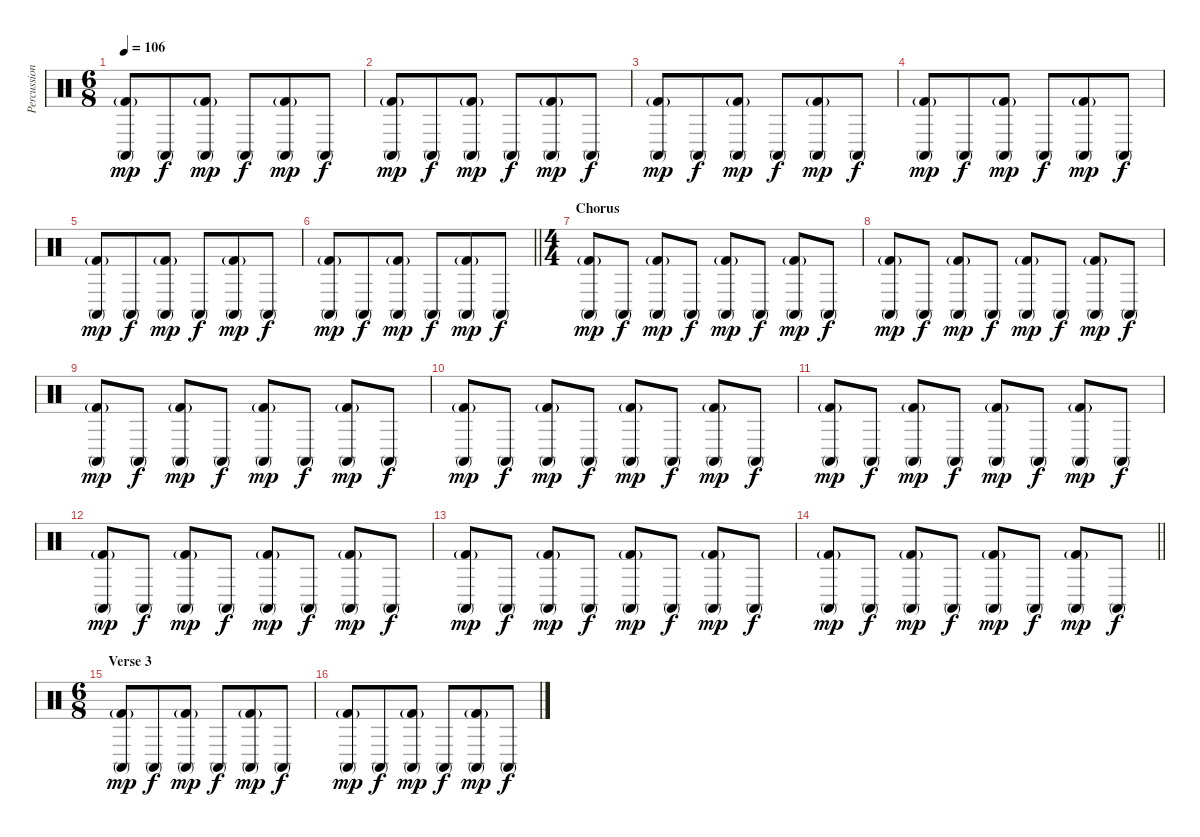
\track ("Percussion" "Percussion") {instrument percussion}
\staff {score}
\articulation defaults
\ts (6 8)
\tempo 106
\clef neutral
\ks c
("Conga high (mute)" "Kick (hit) 2"{g}).8{dy mp} "Conga high (mute)".8{dy f} ("Conga high (mute)" "Kick (hit) 2"{g}).8{dy mp} "Conga high (mute)".8{dy f} ("Conga high (mute)" "Kick (hit) 2"{g}).8{dy mp} "Conga high (mute)".8{dy f} |
("Conga high (mute)" "Kick (hit) 2"{g}).8{dy mp} "Conga high (mute)".8{dy f} ("Conga high (mute)" "Kick (hit) 2"{g}).8{dy mp} "Conga high (mute)".8{dy f} ("Conga high (mute)" "Kick (hit) 2"{g}).8{dy mp} "Conga high (mute)".8{dy f} |
("Conga high (mute)" "Kick (hit) 2"{g}).8{dy mp} "Conga high (mute)".8{dy f} ("Conga high (mute)" "Kick (hit) 2"{g}).8{dy mp} "Conga high (mute)".8{dy f} ("Conga high (mute)" "Kick (hit) 2"{g}).8{dy mp} "Conga high (mute)".8{dy f} |
("Conga high (mute)" "Kick (hit) 2"{g}).8{dy mp} "Conga high (mute)".8{dy f} ("Conga high (mute)" "Kick (hit) 2"{g}).8{dy mp} "Conga high (mute)".8{dy f} ("Conga high (mute)" "Kick (hit) 2"{g}).8{dy mp} "Conga high (mute)".8{dy f} |
("Conga high (mute)" "Kick (hit) 2"{g}).8{dy mp} "Conga high (mute)".8{dy f} ("Conga high (mute)" "Kick (hit) 2"{g}).8{dy mp} "Conga high (mute)".8{dy f} ("Conga high (mute)" "Kick (hit) 2"{g}).8{dy mp} "Conga high (mute)".8{dy f} |
\barLineRight lightlight
("Conga high (mute)" "Kick (hit) 2"{g}).8{dy mp} "Conga high (mute)".8{dy f} ("Conga high (mute)" "Kick (hit) 2"{g}).8{dy mp} "Conga high (mute)".8{dy f} ("Conga high (mute)" "Kick (hit) 2"{g}).8{dy mp} "Conga high (mute)".8{dy f} |
\ts (4 4)
\section ("" "Chorus")
("Conga high (mute)" "Kick (hit) 2"{g}).8{dy mp} "Conga high (mute)".8{dy f} ("Conga high (mute)" "Kick (hit) 2"{g}).8{dy mp} "Conga high (mute)".8{dy f} ("Conga high (mute)" "Kick (hit) 2"{g}).8{dy mp} "Conga high (mute)".8{dy f} ("Conga high (mute)" "Kick (hit) 2"{g}).8{dy mp} "Conga high (mute)".8{dy f} |
("Conga high (mute)" "Kick (hit) 2"{g}).8{dy mp} "Conga high (mute)".8{dy f} ("Conga high (mute)" "Kick (hit) 2"{g}).8{dy mp} "Conga high (mute)".8{dy f} ("Conga high (mute)" "Kick (hit) 2"{g}).8{dy mp} "Conga high (mute)".8{dy f} ("Conga high (mute)" "Kick (hit) 2"{g}).8{dy mp} "Conga high (mute)".8{dy f} |
("Conga high (mute)" "Kick (hit) 2"{g}).8{dy mp} "Conga high (mute)".8{dy f} ("Conga high (mute)" "Kick (hit) 2"{g}).8{dy mp} "Conga high (mute)".8{dy f} ("Conga high (mute)" "Kick (hit) 2"{g}).8{dy mp} "Conga high (mute)".8{dy f} ("Conga high (mute)" "Kick (hit) 2"{g}).8{dy mp} "Conga high (mute)".8{dy f} |
("Conga high (mute)" "Kick (hit) 2"{g}).8{dy mp} "Conga high (mute)".8{dy f} ("Conga high (mute)" "Kick (hit) 2"{g}).8{dy mp} "Conga high (mute)".8{dy f} ("Conga high (mute)" "Kick (hit) 2"{g}).8{dy mp} "Conga high (mute)".8{dy f} ("Conga high (mute)" "Kick (hit) 2"{g}).8{dy mp} "Conga high (mute)".8{dy f} |
("Conga high (mute)" "Kick (hit) 2"{g}).8{dy mp} "Conga high (mute)".8{dy f} ("Conga high (mute)" "Kick (hit) 2"{g}).8{dy mp} "Conga high (mute)".8{dy f} ("Conga high (mute)" "Kick (hit) 2"{g}).8{dy mp} "Conga high (mute)".8{dy f} ("Conga high (mute)" "Kick (hit) 2"{g}).8{dy mp} "Conga high (mute)".8{dy f} |
("Conga high (mute)" "Kick (hit) 2"{g}).8{dy mp} "Conga high (mute)".8{dy f} ("Conga high (mute)" "Kick (hit) 2"{g}).8{dy mp} "Conga high (mute)".8{dy f} ("Conga high (mute)" "Kick (hit) 2"{g}).8{dy mp} "Conga high (mute)".8{dy f} ("Conga high (mute)" "Kick (hit) 2"{g}).8{dy mp} "Conga high (mute)".8{dy f} |
("Conga high (mute)" "Kick (hit) 2"{g}).8{dy mp} "Conga high (mute)".8{dy f} ("Conga high (mute)" "Kick (hit) 2"{g}).8{dy mp} "Conga high (mute)".8{dy f} ("Conga high (mute)" "Kick (hit) 2"{g}).8{dy mp} "Conga high (mute)".8{dy f} ("Conga high (mute)" "Kick (hit) 2"{g}).8{dy mp} "Conga high (mute)".8{dy f} |
\barLineRight lightlight
("Conga high (mute)" "Kick (hit) 2"{g}).8{dy mp} "Conga high (mute)".8{dy f} ("Conga high (mute)" "Kick (hit) 2"{g}).8{dy mp} "Conga high (mute)".8{dy f} ("Conga high (mute)" "Kick (hit) 2"{g}).8{dy mp} "Conga high (mute)".8{dy f} ("Conga high (mute)" "Kick (hit) 2"{g}).8{dy mp} "Conga high (mute)".8{dy f} |
\ts (6 8)
\section ("" "Verse 3")
("Conga high (mute)" "Kick (hit) 2"{g}).8{dy mp} "Conga high (mute)".8{dy f} ("Conga high (mute)" "Kick (hit) 2"{g}).8{dy mp} "Conga high (mute)".8{dy f} ("Conga high (mute)" "Kick (hit) 2"{g}).8{dy mp} "Conga high (mute)".8{dy f} |
("Conga high (mute)" "Kick (hit) 2"{g}).8{dy mp} "Conga high (mute)".8{dy f} ("Conga high (mute)" "Kick (hit) 2"{g}).8{dy mp} "Conga high (mute)".8{dy f} ("Conga high (mute)" "Kick (hit) 2"{g}).8{dy mp} "Conga high (mute)".8{dy f}
